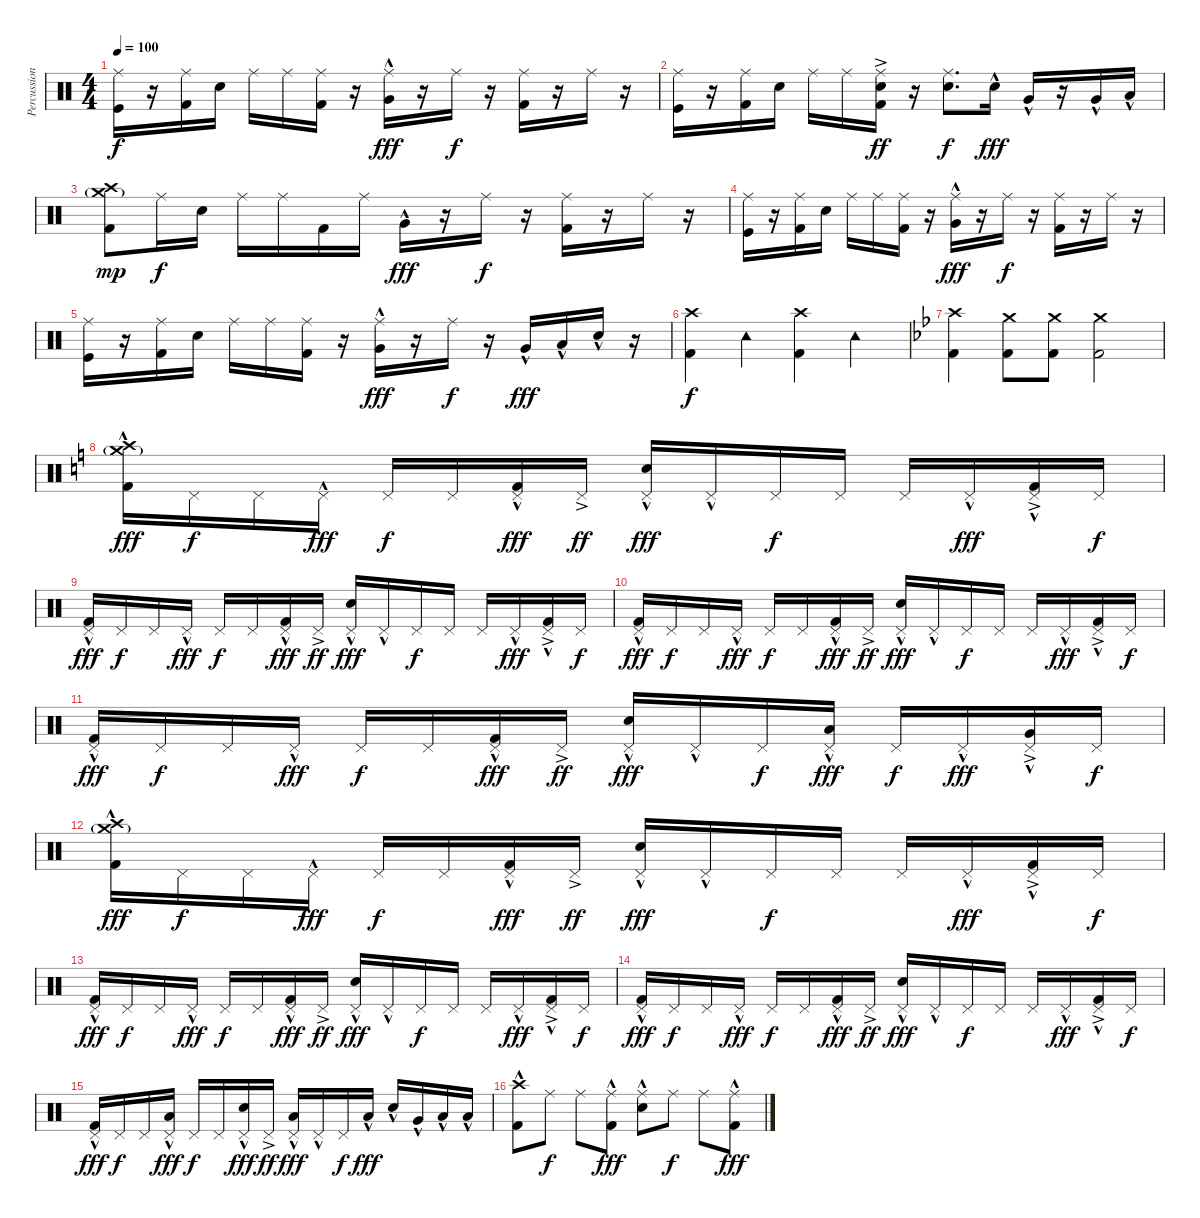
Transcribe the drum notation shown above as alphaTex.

\track ("Percussion" "Percussion") {instrument percussion}
\staff {score}
\articulation defaults
\ts (4 4)
\tempo 100
\clef neutral
\ks c
("Ride (middle)" "Kick (hit)").16{dy f} r.16 ("Ride (middle)" "Kick (hit) 2").16 "Electric Snare (hit)".16 "Ride (middle)".16 "Ride (middle)".16 ("Ride (middle)" "Kick (hit) 2").16 r.16 ("Ride (middle)" "Very Low Tom (hit)"{hac}).16{dy fff} r.16 "Ride (middle)".16{dy f} r.16 ("Ride (middle)" "Kick (hit) 2").16 r.16 "Ride (middle)".16 r.16 |
("Ride (middle)" "Kick (hit)").16 r.16 ("Ride (middle)" "Kick (hit) 2").16 "Electric Snare (hit)".16 "Ride (middle)".16 "Ride (middle)".16 ("Ride (middle)" "Electric Snare (hit)"{ac} "Kick (hit) 2").16{dy ff} r.16 ("Ride (middle)" "Electric Snare (hit)").8{d dy f} "Electric Snare (hit)"{hac}.16{dy fff} "Very Low Tom (hit)"{hac}.16 r.16 "Very Low Tom (hit)"{hac}.16 "Low Floor Tom (hit)"{hac}.16 |
("Crash high (hit)" "Crash medium (hit)"{g} "Kick (hit) 2").8{dy mp} "Ride (middle)".16{dy f} "Electric Snare (hit)".16 "Ride (middle)".16 "Ride (middle)".16 "Kick (hit) 2".16 "Ride (middle)".16 "Very Low Tom (hit)"{hac}.16{dy fff} r.16 "Ride (middle)".16{dy f} r.16 ("Ride (middle)" "Kick (hit) 2").16 r.16 "Ride (middle)".16 r.16 |
("Ride (middle)" "Kick (hit)").16 r.16 ("Ride (middle)" "Kick (hit) 2").16 "Electric Snare (hit)".16 "Ride (middle)".16 "Ride (middle)".16 ("Ride (middle)" "Kick (hit) 2").16 r.16 ("Ride (middle)" "Very Low Tom (hit)"{hac}).16{dy fff} r.16 "Ride (middle)".16{dy f} r.16 ("Ride (middle)" "Kick (hit) 2").16 r.16 "Ride (middle)".16 r.16 |
("Ride (middle)" "Kick (hit)").16 r.16 ("Ride (middle)" "Kick (hit) 2").16 "Electric Snare (hit)".16 "Ride (middle)".16 "Ride (middle)".16 ("Ride (middle)" "Kick (hit) 2").16 r.16 ("Ride (middle)" "Very Low Tom (hit)"{hac}).16{dy fff} r.16 "Ride (middle)".16{dy f} r.16 "Very Low Tom (hit)"{hac}.16{dy fff} "Low Floor Tom (hit)"{hac}.16 "Electric Snare (hit)"{hac}.16 r.16 |
("Crash high (hit)" "Kick (hit) 2").4{dy f} "Tambourine (hit)".4 ("Crash high (hit)" "Kick (hit) 2").4 "Tambourine (hit)".4 |
\ks bb
("Crash high (hit)" "Kick (hit) 2").4 ("Crash medium (hit)" "Kick (hit) 2").8 ("Crash medium (hit)" "Kick (hit) 2").8 ("Crash medium (hit)" "Kick (hit) 2").2 |
\ks c
("Crash high (hit)" "Crash medium (hit)"{g} "Kick (hit) 2"{hac}).16{dy fff} "Pedal Hi-Hat (hit)".16{dy f} "Pedal Hi-Hat (hit)".16 "Pedal Hi-Hat (hit)"{hac}.16{dy fff} "Pedal Hi-Hat (hit)".16{dy f} "Pedal Hi-Hat (hit)".16 ("Pedal Hi-Hat (hit)" "Kick (hit) 2"{hac}).16{dy fff} "Pedal Hi-Hat (hit)"{ac}.16{dy ff} ("Pedal Hi-Hat (hit)" "Electric Snare (hit)"{hac}).16{dy fff} "Pedal Hi-Hat (hit)"{hac}.16 "Pedal Hi-Hat (hit)".16{dy f} "Pedal Hi-Hat (hit)".16 "Pedal Hi-Hat (hit)".16 "Pedal Hi-Hat (hit)"{hac}.16{dy fff} ("Pedal Hi-Hat (hit)"{ac} "Kick (hit) 2"{hac}).16 "Pedal Hi-Hat (hit)".16{dy f} |
("Pedal Hi-Hat (hit)" "Kick (hit) 2"{hac}).16{dy fff} "Pedal Hi-Hat (hit)".16{dy f} "Pedal Hi-Hat (hit)".16 "Pedal Hi-Hat (hit)"{hac}.16{dy fff} "Pedal Hi-Hat (hit)".16{dy f} "Pedal Hi-Hat (hit)".16 ("Pedal Hi-Hat (hit)" "Kick (hit) 2"{hac}).16{dy fff} "Pedal Hi-Hat (hit)"{ac}.16{dy ff} ("Pedal Hi-Hat (hit)" "Electric Snare (hit)"{hac}).16{dy fff} "Pedal Hi-Hat (hit)"{hac}.16 "Pedal Hi-Hat (hit)".16{dy f} "Pedal Hi-Hat (hit)".16 "Pedal Hi-Hat (hit)".16 "Pedal Hi-Hat (hit)"{hac}.16{dy fff} ("Pedal Hi-Hat (hit)"{ac} "Kick (hit) 2"{hac}).16 "Pedal Hi-Hat (hit)".16{dy f} |
("Pedal Hi-Hat (hit)" "Kick (hit) 2"{hac}).16{dy fff} "Pedal Hi-Hat (hit)".16{dy f} "Pedal Hi-Hat (hit)".16 "Pedal Hi-Hat (hit)"{hac}.16{dy fff} "Pedal Hi-Hat (hit)".16{dy f} "Pedal Hi-Hat (hit)".16 ("Pedal Hi-Hat (hit)" "Kick (hit) 2"{hac}).16{dy fff} "Pedal Hi-Hat (hit)"{ac}.16{dy ff} ("Pedal Hi-Hat (hit)" "Electric Snare (hit)"{hac}).16{dy fff} "Pedal Hi-Hat (hit)"{hac}.16 "Pedal Hi-Hat (hit)".16{dy f} "Pedal Hi-Hat (hit)".16 "Pedal Hi-Hat (hit)".16 "Pedal Hi-Hat (hit)"{hac}.16{dy fff} ("Pedal Hi-Hat (hit)"{ac} "Kick (hit) 2"{hac}).16 "Pedal Hi-Hat (hit)".16{dy f} |
("Pedal Hi-Hat (hit)" "Kick (hit) 2"{hac}).16{dy fff} "Pedal Hi-Hat (hit)".16{dy f} "Pedal Hi-Hat (hit)".16 "Pedal Hi-Hat (hit)"{hac}.16{dy fff} "Pedal Hi-Hat (hit)".16{dy f} "Pedal Hi-Hat (hit)".16 ("Pedal Hi-Hat (hit)" "Kick (hit) 2"{hac}).16{dy fff} "Pedal Hi-Hat (hit)"{ac}.16{dy ff} ("Pedal Hi-Hat (hit)" "Electric Snare (hit)"{hac}).16{dy fff} "Pedal Hi-Hat (hit)"{hac}.16 "Pedal Hi-Hat (hit)".16{dy f} ("Pedal Hi-Hat (hit)" "Low Tom (hit)"{hac}).16{dy fff} "Pedal Hi-Hat (hit)".16{dy f} "Pedal Hi-Hat (hit)"{hac}.16{dy fff} ("Pedal Hi-Hat (hit)"{ac} "Very Low Tom (hit)"{hac}).16 "Pedal Hi-Hat (hit)".16{dy f} |
("Crash high (hit)" "Crash medium (hit)"{g} "Kick (hit) 2"{hac}).16{dy fff} "Pedal Hi-Hat (hit)".16{dy f} "Pedal Hi-Hat (hit)".16 "Pedal Hi-Hat (hit)"{hac}.16{dy fff} "Pedal Hi-Hat (hit)".16{dy f} "Pedal Hi-Hat (hit)".16 ("Pedal Hi-Hat (hit)" "Kick (hit) 2"{hac}).16{dy fff} "Pedal Hi-Hat (hit)"{ac}.16{dy ff} ("Pedal Hi-Hat (hit)" "Electric Snare (hit)"{hac}).16{dy fff} "Pedal Hi-Hat (hit)"{hac}.16 "Pedal Hi-Hat (hit)".16{dy f} "Pedal Hi-Hat (hit)".16 "Pedal Hi-Hat (hit)".16 "Pedal Hi-Hat (hit)"{hac}.16{dy fff} ("Pedal Hi-Hat (hit)"{ac} "Kick (hit) 2"{hac}).16 "Pedal Hi-Hat (hit)".16{dy f} |
("Pedal Hi-Hat (hit)" "Kick (hit) 2"{hac}).16{dy fff} "Pedal Hi-Hat (hit)".16{dy f} "Pedal Hi-Hat (hit)".16 "Pedal Hi-Hat (hit)"{hac}.16{dy fff} "Pedal Hi-Hat (hit)".16{dy f} "Pedal Hi-Hat (hit)".16 ("Pedal Hi-Hat (hit)" "Kick (hit) 2"{hac}).16{dy fff} "Pedal Hi-Hat (hit)"{ac}.16{dy ff} ("Pedal Hi-Hat (hit)" "Electric Snare (hit)"{hac}).16{dy fff} "Pedal Hi-Hat (hit)"{hac}.16 "Pedal Hi-Hat (hit)".16{dy f} "Pedal Hi-Hat (hit)".16 "Pedal Hi-Hat (hit)".16 "Pedal Hi-Hat (hit)"{hac}.16{dy fff} ("Pedal Hi-Hat (hit)"{ac} "Kick (hit) 2"{hac}).16 "Pedal Hi-Hat (hit)".16{dy f} |
("Pedal Hi-Hat (hit)" "Kick (hit) 2"{hac}).16{dy fff} "Pedal Hi-Hat (hit)".16{dy f} "Pedal Hi-Hat (hit)".16 "Pedal Hi-Hat (hit)"{hac}.16{dy fff} "Pedal Hi-Hat (hit)".16{dy f} "Pedal Hi-Hat (hit)".16 ("Pedal Hi-Hat (hit)" "Kick (hit) 2"{hac}).16{dy fff} "Pedal Hi-Hat (hit)"{ac}.16{dy ff} ("Pedal Hi-Hat (hit)" "Electric Snare (hit)"{hac}).16{dy fff} "Pedal Hi-Hat (hit)"{hac}.16 "Pedal Hi-Hat (hit)".16{dy f} "Pedal Hi-Hat (hit)".16 "Pedal Hi-Hat (hit)".16 "Pedal Hi-Hat (hit)"{hac}.16{dy fff} ("Pedal Hi-Hat (hit)"{ac} "Kick (hit) 2"{hac}).16 "Pedal Hi-Hat (hit)".16{dy f} |
("Pedal Hi-Hat (hit)" "Kick (hit) 2"{hac}).16{dy fff} "Pedal Hi-Hat (hit)".16{dy f} "Pedal Hi-Hat (hit)".16 ("Pedal Hi-Hat (hit)"{hac} "Low Tom (hit)"{hac}).16{dy fff} "Pedal Hi-Hat (hit)".16{dy f} "Pedal Hi-Hat (hit)".16 ("Pedal Hi-Hat (hit)" "Electric Snare (hit)"{hac}).16{dy fff} "Pedal Hi-Hat (hit)"{ac}.16{dy ff} ("Pedal Hi-Hat (hit)" "Low Tom (hit)"{hac}).16{dy fff} "Pedal Hi-Hat (hit)"{hac}.16 "Pedal Hi-Hat (hit)".16{dy f} "Low Tom (hit)"{hac}.16{dy fff} "Electric Snare (hit)"{hac}.16 "Very Low Tom (hit)"{hac}.16 "Low Floor Tom (hit)"{hac}.16 "Low Floor Tom (hit)"{hac}.16 |
("Crash high (hit)" "Kick (hit) 2"{hac}).8 "Ride (middle)".8{dy f} "Ride (middle)".8 ("Ride (middle)" "Kick (hit) 2"{hac}).8{dy fff} ("Ride (middle)" "Electric Snare (hit)"{hac}).8 "Ride (middle)".8{dy f} "Ride (middle)".8 ("Ride (middle)" "Kick (hit) 2"{hac}).8{dy fff}
